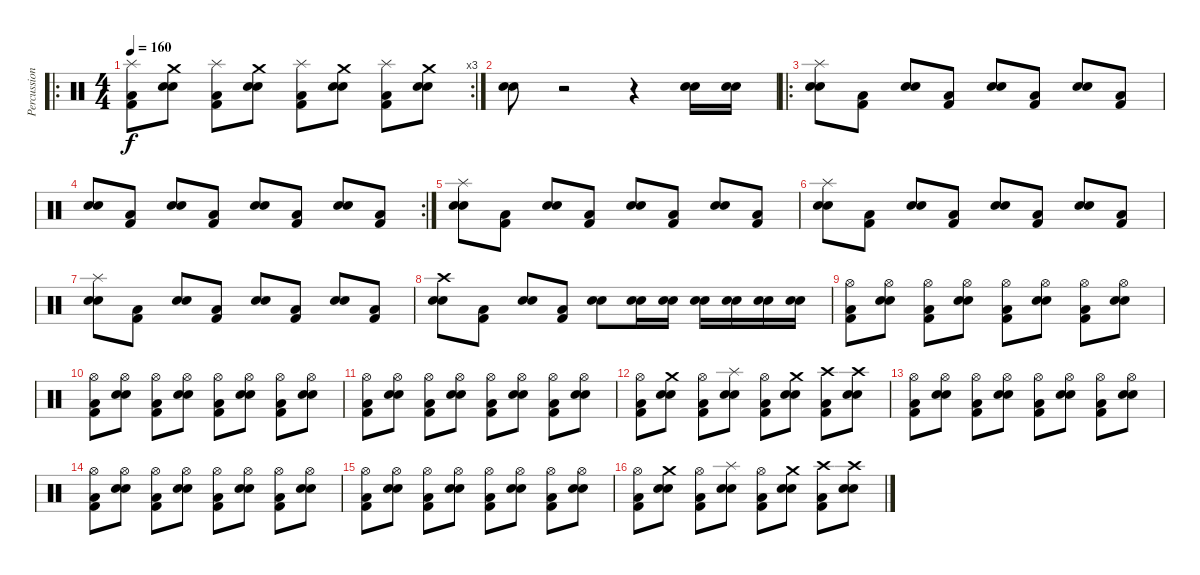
\track ("Percussions" "Percussion") {instrument percussion}
\staff {score}
\articulation defaults
\ro
\rc 3
\ts (4 4)
\tempo 160
\clef neutral
\ks c
("Splash (hit)" "Kick (hit) 2" "Low Floor Tom (hit)").8{dy f} ("Crash medium (hit)" "Snare (hit) 2" "Electric Snare (hit)").8 ("Splash (hit)" "Kick (hit) 2" "Low Floor Tom (hit)").8 ("Crash medium (hit)" "Snare (hit) 2" "Electric Snare (hit)").8 ("Splash (hit)" "Kick (hit) 2" "Low Floor Tom (hit)").8 ("Crash medium (hit)" "Snare (hit) 2" "Electric Snare (hit)").8 ("Splash (hit)" "Kick (hit) 2" "Low Floor Tom (hit)").8 ("Crash medium (hit)" "Snare (hit) 2" "Electric Snare (hit)").8 |
("Snare (hit) 2" "Electric Snare (hit)").8 r.2 r.4 ("Snare (hit) 2" "Electric Snare (hit)").16 ("Snare (hit) 2" "Electric Snare (hit)").16 |
\ro
("Splash (hit)" "Snare (hit) 2" "Electric Snare (hit)").8 ("Kick (hit) 2" "Low Floor Tom (hit)").8 ("Snare (hit) 2" "Electric Snare (hit)").8 ("Kick (hit) 2" "Low Floor Tom (hit)").8 ("Snare (hit) 2" "Electric Snare (hit)").8 ("Kick (hit) 2" "Low Floor Tom (hit)").8 ("Snare (hit) 2" "Electric Snare (hit)").8 ("Kick (hit) 2" "Low Floor Tom (hit)").8 |
\rc 2
("Snare (hit) 2" "Electric Snare (hit)").8 ("Kick (hit) 2" "Low Floor Tom (hit)").8 ("Snare (hit) 2" "Electric Snare (hit)").8 ("Kick (hit) 2" "Low Floor Tom (hit)").8 ("Snare (hit) 2" "Electric Snare (hit)").8 ("Kick (hit) 2" "Low Floor Tom (hit)").8 ("Snare (hit) 2" "Electric Snare (hit)").8 ("Kick (hit) 2" "Low Floor Tom (hit)").8 |
("Splash (hit)" "Snare (hit) 2" "Electric Snare (hit)").8 ("Kick (hit) 2" "Low Floor Tom (hit)").8 ("Snare (hit) 2" "Electric Snare (hit)").8 ("Kick (hit) 2" "Low Floor Tom (hit)").8 ("Snare (hit) 2" "Electric Snare (hit)").8 ("Kick (hit) 2" "Low Floor Tom (hit)").8 ("Snare (hit) 2" "Electric Snare (hit)").8 ("Kick (hit) 2" "Low Floor Tom (hit)").8 |
("Splash (hit)" "Snare (hit) 2" "Electric Snare (hit)").8 ("Kick (hit) 2" "Low Floor Tom (hit)").8 ("Snare (hit) 2" "Electric Snare (hit)").8 ("Kick (hit) 2" "Low Floor Tom (hit)").8 ("Snare (hit) 2" "Electric Snare (hit)").8 ("Kick (hit) 2" "Low Floor Tom (hit)").8 ("Snare (hit) 2" "Electric Snare (hit)").8 ("Kick (hit) 2" "Low Floor Tom (hit)").8 |
("Splash (hit)" "Snare (hit) 2" "Electric Snare (hit)").8 ("Kick (hit) 2" "Low Floor Tom (hit)").8 ("Snare (hit) 2" "Electric Snare (hit)").8 ("Kick (hit) 2" "Low Floor Tom (hit)").8 ("Snare (hit) 2" "Electric Snare (hit)").8 ("Kick (hit) 2" "Low Floor Tom (hit)").8 ("Snare (hit) 2" "Electric Snare (hit)").8 ("Kick (hit) 2" "Low Floor Tom (hit)").8 |
("Crash high (hit)" "Snare (hit) 2" "Electric Snare (hit)").8 ("Kick (hit) 2" "Low Floor Tom (hit)").8 ("Snare (hit) 2" "Electric Snare (hit)").8 ("Kick (hit) 2" "Low Floor Tom (hit)").8 ("Snare (hit) 2" "Electric Snare (hit)").8 ("Snare (hit) 2" "Electric Snare (hit)").16 ("Snare (hit) 2" "Electric Snare (hit)").16 ("Snare (hit) 2" "Electric Snare (hit)").16 ("Snare (hit) 2" "Electric Snare (hit)").16 ("Snare (hit) 2" "Electric Snare (hit)").16 ("Snare (hit) 2" "Electric Snare (hit)").16 |
("Hi-Hat (open)" "Kick (hit) 2" "Low Floor Tom (hit)").8 ("Hi-Hat (open)" "Snare (hit) 2" "Electric Snare (hit)").8 ("Hi-Hat (open)" "Kick (hit) 2" "Low Floor Tom (hit)").8 ("Hi-Hat (open)" "Snare (hit) 2" "Electric Snare (hit)").8 ("Hi-Hat (open)" "Kick (hit) 2" "Low Floor Tom (hit)").8 ("Hi-Hat (open)" "Snare (hit) 2" "Electric Snare (hit)").8 ("Hi-Hat (open)" "Kick (hit) 2" "Low Floor Tom (hit)").8 ("Hi-Hat (open)" "Snare (hit) 2" "Electric Snare (hit)").8 |
("Hi-Hat (open)" "Kick (hit) 2" "Low Floor Tom (hit)").8 ("Hi-Hat (open)" "Snare (hit) 2" "Electric Snare (hit)").8 ("Hi-Hat (open)" "Kick (hit) 2" "Low Floor Tom (hit)").8 ("Hi-Hat (open)" "Snare (hit) 2" "Electric Snare (hit)").8 ("Hi-Hat (open)" "Kick (hit) 2" "Low Floor Tom (hit)").8 ("Hi-Hat (open)" "Snare (hit) 2" "Electric Snare (hit)").8 ("Hi-Hat (open)" "Kick (hit) 2" "Low Floor Tom (hit)").8 ("Hi-Hat (open)" "Snare (hit) 2" "Electric Snare (hit)").8 |
("Hi-Hat (open)" "Kick (hit) 2" "Low Floor Tom (hit)").8 ("Hi-Hat (open)" "Snare (hit) 2" "Electric Snare (hit)").8 ("Hi-Hat (open)" "Kick (hit) 2" "Low Floor Tom (hit)").8 ("Hi-Hat (open)" "Snare (hit) 2" "Electric Snare (hit)").8 ("Hi-Hat (open)" "Kick (hit) 2" "Low Floor Tom (hit)").8 ("Hi-Hat (open)" "Snare (hit) 2" "Electric Snare (hit)").8 ("Hi-Hat (open)" "Kick (hit) 2" "Low Floor Tom (hit)").8 ("Hi-Hat (open)" "Snare (hit) 2" "Electric Snare (hit)").8 |
("Hi-Hat (open)" "Kick (hit) 2" "Low Floor Tom (hit)").8 ("Crash medium (hit)" "Snare (hit) 2" "Electric Snare (hit)").8 ("Hi-Hat (open)" "Kick (hit) 2" "Low Floor Tom (hit)").8 ("Splash (hit)" "Snare (hit) 2" "Electric Snare (hit)").8 ("Hi-Hat (open)" "Kick (hit) 2" "Low Floor Tom (hit)").8 ("Crash medium (hit)" "Snare (hit) 2" "Electric Snare (hit)").8 ("Crash high (hit)" "Kick (hit) 2" "Low Floor Tom (hit)").8 ("Crash high (hit)" "Snare (hit) 2" "Electric Snare (hit)").8 |
("Hi-Hat (open)" "Kick (hit) 2" "Low Floor Tom (hit)").8 ("Hi-Hat (open)" "Snare (hit) 2" "Electric Snare (hit)").8 ("Hi-Hat (open)" "Kick (hit) 2" "Low Floor Tom (hit)").8 ("Hi-Hat (open)" "Snare (hit) 2" "Electric Snare (hit)").8 ("Hi-Hat (open)" "Kick (hit) 2" "Low Floor Tom (hit)").8 ("Hi-Hat (open)" "Snare (hit) 2" "Electric Snare (hit)").8 ("Hi-Hat (open)" "Kick (hit) 2" "Low Floor Tom (hit)").8 ("Hi-Hat (open)" "Snare (hit) 2" "Electric Snare (hit)").8 |
("Hi-Hat (open)" "Kick (hit) 2" "Low Floor Tom (hit)").8 ("Hi-Hat (open)" "Snare (hit) 2" "Electric Snare (hit)").8 ("Hi-Hat (open)" "Kick (hit) 2" "Low Floor Tom (hit)").8 ("Hi-Hat (open)" "Snare (hit) 2" "Electric Snare (hit)").8 ("Hi-Hat (open)" "Kick (hit) 2" "Low Floor Tom (hit)").8 ("Hi-Hat (open)" "Snare (hit) 2" "Electric Snare (hit)").8 ("Hi-Hat (open)" "Kick (hit) 2" "Low Floor Tom (hit)").8 ("Hi-Hat (open)" "Snare (hit) 2" "Electric Snare (hit)").8 |
("Hi-Hat (open)" "Kick (hit) 2" "Low Floor Tom (hit)").8 ("Hi-Hat (open)" "Snare (hit) 2" "Electric Snare (hit)").8 ("Hi-Hat (open)" "Kick (hit) 2" "Low Floor Tom (hit)").8 ("Hi-Hat (open)" "Snare (hit) 2" "Electric Snare (hit)").8 ("Hi-Hat (open)" "Kick (hit) 2" "Low Floor Tom (hit)").8 ("Hi-Hat (open)" "Snare (hit) 2" "Electric Snare (hit)").8 ("Hi-Hat (open)" "Kick (hit) 2" "Low Floor Tom (hit)").8 ("Hi-Hat (open)" "Snare (hit) 2" "Electric Snare (hit)").8 |
("Hi-Hat (open)" "Kick (hit) 2" "Low Floor Tom (hit)").8 ("Crash medium (hit)" "Snare (hit) 2" "Electric Snare (hit)").8 ("Hi-Hat (open)" "Kick (hit) 2" "Low Floor Tom (hit)").8 ("Splash (hit)" "Snare (hit) 2" "Electric Snare (hit)").8 ("Hi-Hat (open)" "Kick (hit) 2" "Low Floor Tom (hit)").8 ("Crash medium (hit)" "Snare (hit) 2" "Electric Snare (hit)").8 ("Crash high (hit)" "Kick (hit) 2" "Low Floor Tom (hit)").8 ("Crash high (hit)" "Snare (hit) 2" "Electric Snare (hit)").8
